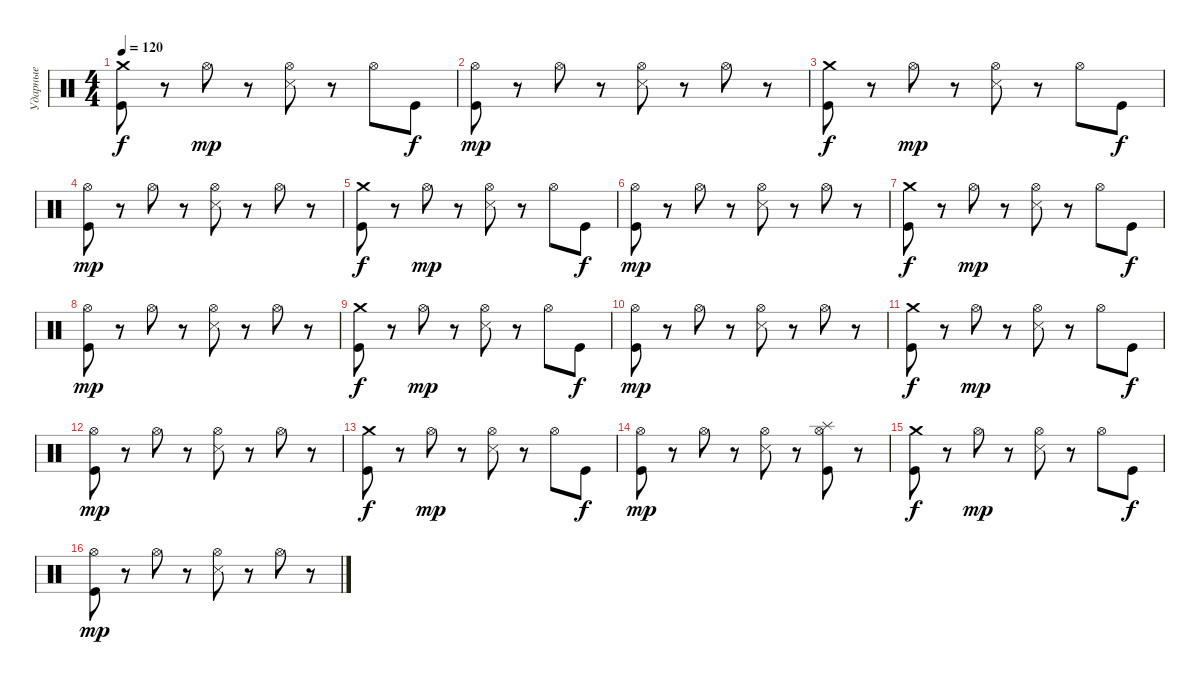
\track ("Ударные" "Ударные") {instrument percussion}
\staff {score}
\articulation defaults
\ts (4 4)
\tempo 120
\clef neutral
\ks c
("Kick (hit)" "Crash medium (hit)").8{dy f} r.8 "Hi-Hat (open)".8{dy mp} r.8 ("Snare (side stick) 3" "Hi-Hat (open)").8 r.8 "Hi-Hat (open)".8 "Kick (hit)".8{dy f} |
("Kick (hit)" "Hi-Hat (open)").8{dy mp} r.8 "Hi-Hat (open)".8 r.8 ("Snare (side stick) 3" "Hi-Hat (open)").8 r.8 "Hi-Hat (open)".8 r.8 |
("Kick (hit)" "Crash medium (hit)").8{dy f} r.8 "Hi-Hat (open)".8{dy mp} r.8 ("Snare (side stick) 3" "Hi-Hat (open)").8 r.8 "Hi-Hat (open)".8 "Kick (hit)".8{dy f} |
("Kick (hit)" "Hi-Hat (open)").8{dy mp} r.8 "Hi-Hat (open)".8 r.8 ("Snare (side stick) 3" "Hi-Hat (open)").8 r.8 "Hi-Hat (open)".8 r.8 |
("Kick (hit)" "Crash medium (hit)").8{dy f} r.8 "Hi-Hat (open)".8{dy mp} r.8 ("Snare (side stick) 3" "Hi-Hat (open)").8 r.8 "Hi-Hat (open)".8 "Kick (hit)".8{dy f} |
("Kick (hit)" "Hi-Hat (open)").8{dy mp} r.8 "Hi-Hat (open)".8 r.8 ("Snare (side stick) 3" "Hi-Hat (open)").8 r.8 "Hi-Hat (open)".8 r.8 |
("Kick (hit)" "Crash medium (hit)").8{dy f} r.8 "Hi-Hat (open)".8{dy mp} r.8 ("Snare (side stick) 3" "Hi-Hat (open)").8 r.8 "Hi-Hat (open)".8 "Kick (hit)".8{dy f} |
("Kick (hit)" "Hi-Hat (open)").8{dy mp} r.8 "Hi-Hat (open)".8 r.8 ("Snare (side stick) 3" "Hi-Hat (open)").8 r.8 "Hi-Hat (open)".8 r.8 |
("Kick (hit)" "Crash medium (hit)").8{dy f} r.8 "Hi-Hat (open)".8{dy mp} r.8 ("Snare (side stick) 3" "Hi-Hat (open)").8 r.8 "Hi-Hat (open)".8 "Kick (hit)".8{dy f} |
("Kick (hit)" "Hi-Hat (open)").8{dy mp} r.8 "Hi-Hat (open)".8 r.8 ("Snare (side stick) 3" "Hi-Hat (open)").8 r.8 "Hi-Hat (open)".8 r.8 |
("Kick (hit)" "Crash medium (hit)").8{dy f} r.8 "Hi-Hat (open)".8{dy mp} r.8 ("Snare (side stick) 3" "Hi-Hat (open)").8 r.8 "Hi-Hat (open)".8 "Kick (hit)".8{dy f} |
("Kick (hit)" "Hi-Hat (open)").8{dy mp} r.8 "Hi-Hat (open)".8 r.8 ("Snare (side stick) 3" "Hi-Hat (open)").8 r.8 "Hi-Hat (open)".8 r.8 |
("Kick (hit)" "Crash medium (hit)").8{dy f} r.8 "Hi-Hat (open)".8{dy mp} r.8 ("Snare (side stick) 3" "Hi-Hat (open)").8 r.8 "Hi-Hat (open)".8 "Kick (hit)".8{dy f} |
("Kick (hit)" "Hi-Hat (open)").8{dy mp} r.8 "Hi-Hat (open)".8 r.8 ("Snare (side stick) 3" "Hi-Hat (open)").8 r.8 ("Kick (hit)" "Splash (hit)" "Hi-Hat (open)").8 r.8 |
("Crash medium (hit)" "Kick (hit)").8{dy f} r.8 "Hi-Hat (open)".8{dy mp} r.8 ("Snare (side stick) 3" "Hi-Hat (open)").8 r.8 "Hi-Hat (open)".8 "Kick (hit)".8{dy f} |
("Kick (hit)" "Hi-Hat (open)").8{dy mp} r.8 "Hi-Hat (open)".8 r.8 ("Snare (side stick) 3" "Hi-Hat (open)").8 r.8 "Hi-Hat (open)".8 r.8
